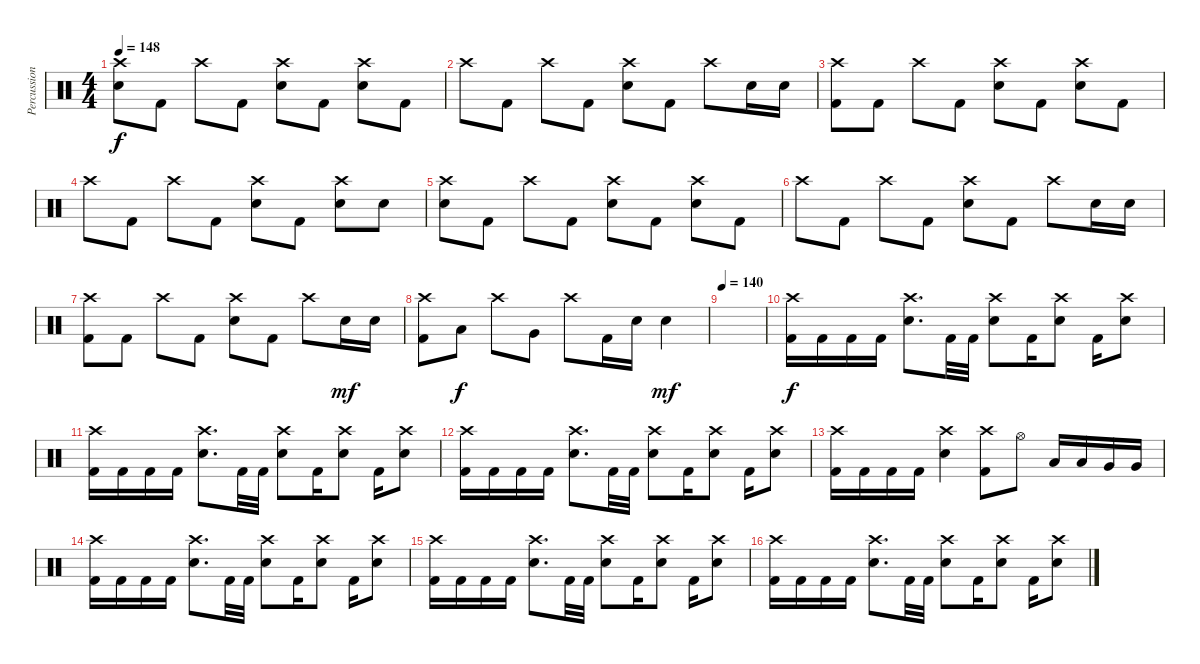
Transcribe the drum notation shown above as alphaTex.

\track ("Percussion" "Percussion") {instrument percussion}
\staff {score}
\articulation defaults
\ts (4 4)
\tempo 148
\clef neutral
\ks c
("Crash high (hit)" "Snare (hit) 2").8{dy f} "Kick (hit) 2".8 "Crash high (hit)".8 "Kick (hit) 2".8 ("Crash high (hit)" "Snare (hit) 2").8 "Kick (hit) 2".8 ("Crash high (hit)" "Snare (hit) 2").8 "Kick (hit) 2".8 |
"Crash high (hit)".8 "Kick (hit) 2".8 "Crash high (hit)".8 "Kick (hit) 2".8 ("Crash high (hit)" "Snare (hit) 2").8 "Kick (hit) 2".8 "Crash high (hit)".8 "Snare (hit) 2".16 "Snare (hit) 2".16 |
("Crash high (hit)" "Kick (hit) 2").8 "Kick (hit) 2".8 "Crash high (hit)".8 "Kick (hit) 2".8 ("Crash high (hit)" "Snare (hit) 2").8 "Kick (hit) 2".8 ("Crash high (hit)" "Snare (hit) 2").8 "Kick (hit) 2".8 |
"Crash high (hit)".8 "Kick (hit) 2".8 "Crash high (hit)".8 "Kick (hit) 2".8 ("Crash high (hit)" "Snare (hit) 2").8 "Kick (hit) 2".8 ("Crash high (hit)" "Snare (hit) 2").8 "Snare (hit) 2".8 |
("Crash high (hit)" "Snare (hit) 2").8 "Kick (hit) 2".8 "Crash high (hit)".8 "Kick (hit) 2".8 ("Crash high (hit)" "Snare (hit) 2").8 "Kick (hit) 2".8 ("Crash high (hit)" "Snare (hit) 2").8 "Kick (hit) 2".8 |
"Crash high (hit)".8 "Kick (hit) 2".8 "Crash high (hit)".8 "Kick (hit) 2".8 ("Crash high (hit)" "Snare (hit) 2").8 "Kick (hit) 2".8 "Crash high (hit)".8 "Snare (hit) 2".16 "Snare (hit) 2".16 |
("Crash high (hit)" "Kick (hit) 2").8 "Kick (hit) 2".8 "Crash high (hit)".8 "Kick (hit) 2".8 ("Crash high (hit)" "Snare (hit) 2").8 "Kick (hit) 2".8 "Crash high (hit)".8 "Snare (hit) 2".16{dy mf} "Snare (hit) 2".16 |
("Crash high (hit)" "Kick (hit) 2").8 "Low Tom (hit)".8{dy f} "Crash high (hit)".8 "Very Low Tom (hit)".8 "Crash high (hit)".8 "Kick (hit) 2".16 "Snare (hit) 2".16 "Snare (hit) 2".4{dy mf} |
\tempo 140
|
("Crash high (hit)" "Kick (hit) 2").16{dy f} "Kick (hit) 2".16 "Kick (hit) 2".16 "Kick (hit) 2".16 ("Crash high (hit)" "Snare (hit) 2").8{d} "Kick (hit) 2".32 "Kick (hit) 2".32 ("Crash high (hit)" "Snare (hit) 2").8 "Kick (hit) 2".16 ("Crash high (hit)" "Snare (hit) 2").8 "Kick (hit) 2".16 ("Crash high (hit)" "Snare (hit) 2").8 |
("Crash high (hit)" "Kick (hit) 2").16 "Kick (hit) 2".16 "Kick (hit) 2".16 "Kick (hit) 2".16 ("Crash high (hit)" "Snare (hit) 2").8{d} "Kick (hit) 2".32 "Kick (hit) 2".32 ("Crash high (hit)" "Snare (hit) 2").8 "Kick (hit) 2".16 ("Crash high (hit)" "Snare (hit) 2").8 "Kick (hit) 2".16 ("Crash high (hit)" "Snare (hit) 2").8 |
("Crash high (hit)" "Kick (hit) 2").16 "Kick (hit) 2".16 "Kick (hit) 2".16 "Kick (hit) 2".16 ("Crash high (hit)" "Snare (hit) 2").8{d} "Kick (hit) 2".32 "Kick (hit) 2".32 ("Crash high (hit)" "Snare (hit) 2").8 "Kick (hit) 2".16 ("Crash high (hit)" "Snare (hit) 2").8 "Kick (hit) 2".16 ("Crash high (hit)" "Snare (hit) 2").8 |
("Crash high (hit)" "Kick (hit) 2").16 "Kick (hit) 2".16 "Kick (hit) 2".16 "Kick (hit) 2".16 ("Crash high (hit)" "Snare (hit) 2").4 ("Crash high (hit)" "Kick (hit) 2").8 "Hi-Hat (open)".8 "Low Tom (hit)".16 "Low Tom (hit)".16 "Very Low Tom (hit)".16 "Very Low Tom (hit)".16 |
("Crash high (hit)" "Kick (hit) 2").16 "Kick (hit) 2".16 "Kick (hit) 2".16 "Kick (hit) 2".16 ("Crash high (hit)" "Snare (hit) 2").8{d} "Kick (hit) 2".32 "Kick (hit) 2".32 ("Crash high (hit)" "Snare (hit) 2").8 "Kick (hit) 2".16 ("Crash high (hit)" "Snare (hit) 2").8 "Kick (hit) 2".16 ("Crash high (hit)" "Snare (hit) 2").8 |
("Crash high (hit)" "Kick (hit) 2").16 "Kick (hit) 2".16 "Kick (hit) 2".16 "Kick (hit) 2".16 ("Crash high (hit)" "Snare (hit) 2").8{d} "Kick (hit) 2".32 "Kick (hit) 2".32 ("Crash high (hit)" "Snare (hit) 2").8 "Kick (hit) 2".16 ("Crash high (hit)" "Snare (hit) 2").8 "Kick (hit) 2".16 ("Crash high (hit)" "Snare (hit) 2").8 |
("Crash high (hit)" "Kick (hit) 2").16 "Kick (hit) 2".16 "Kick (hit) 2".16 "Kick (hit) 2".16 ("Crash high (hit)" "Snare (hit) 2").8{d} "Kick (hit) 2".32 "Kick (hit) 2".32 ("Crash high (hit)" "Snare (hit) 2").8 "Kick (hit) 2".16 ("Crash high (hit)" "Snare (hit) 2").8 "Kick (hit) 2".16 ("Crash high (hit)" "Snare (hit) 2").8
